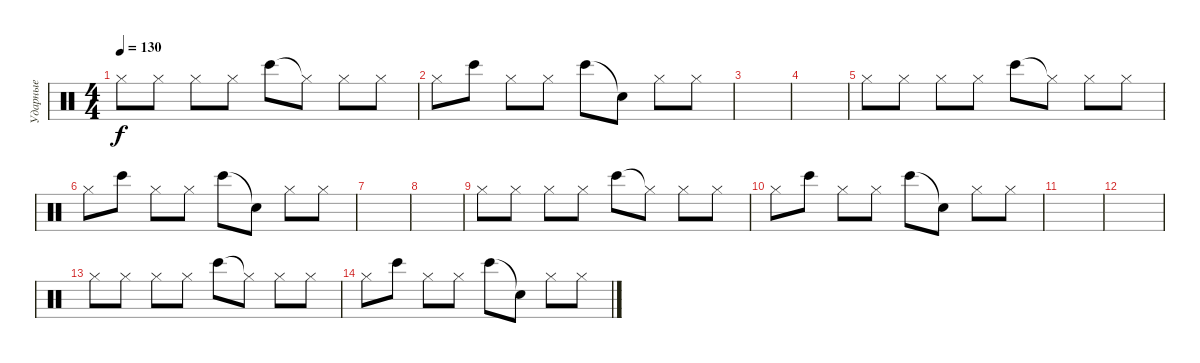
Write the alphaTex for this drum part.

\track ("Ударные" "Ударные") {instrument percussion}
\staff {score}
\articulation defaults
\ts (4 4)
\tempo 130
\clef neutral
\ks c "Hi-Hat (closed)".8{dy f} "Hi-Hat (closed)".8 "Hi-Hat (closed)".8 "Hi-Hat (closed)".8 "Bongo High (hit)".8 "Hi-Hat (closed)"{t}.8 "Hi-Hat (closed)".8 "Hi-Hat (closed)".8
|
"Hi-Hat (closed)".8 "Bongo High (hit)".8 "Hi-Hat (closed)".8 "Hi-Hat (closed)".8 "Bongo High (hit)".8 "Snare (hit)"{t}.8 "Hi-Hat (closed)".8 "Hi-Hat (closed)".8 |
|
|
"Hi-Hat (closed)".8 "Hi-Hat (closed)".8 "Hi-Hat (closed)".8 "Hi-Hat (closed)".8 "Bongo High (hit)".8 "Hi-Hat (closed)"{t}.8 "Hi-Hat (closed)".8 "Hi-Hat (closed)".8 |
"Hi-Hat (closed)".8 "Bongo High (hit)".8 "Hi-Hat (closed)".8 "Hi-Hat (closed)".8 "Bongo High (hit)".8 "Snare (hit)"{t}.8 "Hi-Hat (closed)".8 "Hi-Hat (closed)".8 |
|
|
"Hi-Hat (closed)".8 "Hi-Hat (closed)".8 "Hi-Hat (closed)".8 "Hi-Hat (closed)".8 "Bongo High (hit)".8 "Hi-Hat (closed)"{t}.8 "Hi-Hat (closed)".8 "Hi-Hat (closed)".8 |
"Hi-Hat (closed)".8 "Bongo High (hit)".8 "Hi-Hat (closed)".8 "Hi-Hat (closed)".8 "Bongo High (hit)".8 "Snare (hit)"{t}.8 "Hi-Hat (closed)".8 "Hi-Hat (closed)".8 |
|
|
"Hi-Hat (closed)".8 "Hi-Hat (closed)".8 "Hi-Hat (closed)".8 "Hi-Hat (closed)".8 "Bongo High (hit)".8 "Hi-Hat (closed)"{t}.8 "Hi-Hat (closed)".8 "Hi-Hat (closed)".8 |
"Hi-Hat (closed)".8 "Bongo High (hit)".8 "Hi-Hat (closed)".8 "Hi-Hat (closed)".8 "Bongo High (hit)".8 "Snare (hit)"{t}.8 "Hi-Hat (closed)".8 "Hi-Hat (closed)".8
